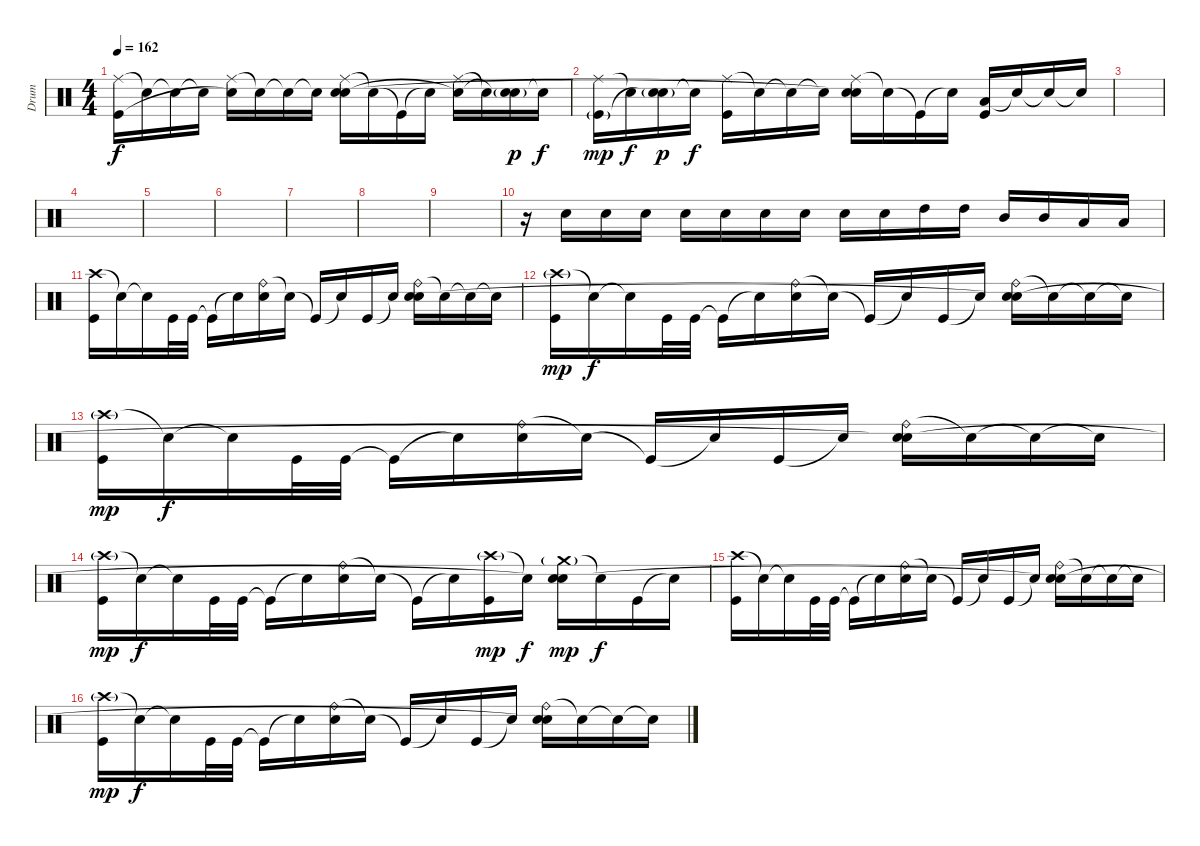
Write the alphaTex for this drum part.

\track ("Drum" "Drum") {instrument percussion}
\staff {score}
\articulation defaults
\ts (4 4)
\tempo 162
\clef neutral
\ks c
("Ride (middle)" "Kick (hit)").16{dy f} "Snare (hit)"{t}.16 "Snare (hit)"{t}.16 "Snare (hit)"{t}.16 ("Ride (middle)" "Snare (hit)"{t}).16 "Snare (hit)"{t}.16 "Snare (hit)"{t}.16 "Snare (hit)"{t}.16 ("Ride (middle)" "Electric Snare (hit)" "Snare (hit)"{t}).16 "Snare (hit)"{t}.16 "Kick (hit)"{t}.16 "Snare (hit)"{t}.16 ("Ride (middle)" "Snare (hit)"{t}).16 "Snare (hit)"{t}.16 ("Electric Snare (hit)"{g} "Snare (hit)"{t}).16{dy p} "Snare (hit)"{t}.16{dy f} |
("Ride (middle)" "Kick (hit)"{g}).16{dy mp} "Snare (hit)"{t}.16{dy f} ("Electric Snare (hit)"{g} "Snare (hit)"{t}).16{dy p} "Snare (hit)"{t}.16{dy f} ("Ride (middle)" "Kick (hit)").16 "Snare (hit)"{t}.16 "Snare (hit)"{t}.16 "Snare (hit)"{t}.16 ("Ride (middle)" "Electric Snare (hit)" "Snare (hit)"{t}).16 "Snare (hit)"{t}.16 "Kick (hit)"{t}.16 "Snare (hit)"{t}.16 ("Low Tom (hit)" "Kick (hit)").16 "Snare (hit)"{t}.16 "Snare (hit)"{t}.16 "Snare (hit)"{t}.16 |
|
|
|
|
|
|
|
r.16 "Electric Snare (hit)".16 "Electric Snare (hit)".16 "Electric Snare (hit)".16 "Electric Snare (hit)".16 "Electric Snare (hit)".16 "Electric Snare (hit)".16 "Electric Snare (hit)".16 "Electric Snare (hit)".16 "Electric Snare (hit)".16 "High Tom (hit)".16 "High Tom (hit)".16 "Mid Tom (hit)".16 "Mid Tom (hit)".16 "Low Tom (hit)".16 "Low Tom (hit)".16 |
("Crash high (hit)" "Kick (hit)").16 "Snare (hit)"{t}.16 "Snare (hit)"{t}.16 "Kick (hit)".32 "Kick (hit)".32 "Kick (hit)"{t}.16 "Snare (hit)"{t}.16 ("Ride (bell)" "Electric Snare (hit)").16 "Snare (hit)"{t}.16 "Kick (hit)"{t}.16 "Snare (hit)"{t}.16 "Kick (hit)".16 "Snare (hit)"{t}.16 ("Ride (bell)" "Electric Snare (hit)" "Snare (hit)").16 "Snare (hit)"{t}.16 "Snare (hit)"{t}.16 "Snare (hit)"{t}.16 |
("Crash high (hit)"{g} "Kick (hit)").16{dy mp} "Snare (hit)"{t}.16{dy f} "Snare (hit)"{t}.16 "Kick (hit)".32 "Kick (hit)".32 "Kick (hit)"{t}.16 "Snare (hit)"{t}.16 ("Ride (bell)" "Electric Snare (hit)").16 "Snare (hit)"{t}.16 "Kick (hit)"{t}.16 "Snare (hit)"{t}.16 "Kick (hit)".16 "Snare (hit)"{t}.16 ("Ride (bell)" "Electric Snare (hit)" "Snare (hit)"{t}).16 "Snare (hit)"{t}.16 "Snare (hit)"{t}.16 "Snare (hit)"{t}.16 |
("Crash high (hit)"{g} "Kick (hit)").16{dy mp} "Snare (hit)"{t}.16{dy f} "Snare (hit)"{t}.16 "Kick (hit)".32 "Kick (hit)".32 "Kick (hit)"{t}.16 "Snare (hit)"{t}.16 ("Ride (bell)" "Electric Snare (hit)").16 "Snare (hit)"{t}.16 "Kick (hit)"{t}.16 "Snare (hit)"{t}.16 "Kick (hit)".16 "Snare (hit)"{t}.16 ("Ride (bell)" "Electric Snare (hit)" "Snare (hit)"{t}).16 "Snare (hit)"{t}.16 "Snare (hit)"{t}.16 "Snare (hit)"{t}.16 |
("Crash high (hit)"{g} "Kick (hit)").16{dy mp} "Snare (hit)"{t}.16{dy f} "Snare (hit)"{t}.16 "Kick (hit)".32 "Kick (hit)".32 "Kick (hit)"{t}.16 "Snare (hit)"{t}.16 ("Ride (bell)" "Electric Snare (hit)").16 "Snare (hit)"{t}.16 "Kick (hit)"{t}.16 "Snare (hit)"{t}.16 ("Crash high (hit)"{g} "Kick (hit)").16{dy mp} "Snare (hit)"{t}.16{dy f} ("Crash medium (hit)"{g} "Electric Snare (hit)" "Snare (hit)"{t}).16{dy mp} "Snare (hit)"{t}.16{dy f} "Kick (hit)".16 "Snare (hit)"{t}.16 |
("Crash high (hit)" "Kick (hit)").16 "Snare (hit)"{t}.16 "Snare (hit)"{t}.16 "Kick (hit)".32 "Kick (hit)".32 "Kick (hit)"{t}.16 "Snare (hit)"{t}.16 ("Ride (bell)" "Electric Snare (hit)").16 "Snare (hit)"{t}.16 "Kick (hit)"{t}.16 "Snare (hit)"{t}.16 "Kick (hit)".16 "Snare (hit)"{t}.16 ("Ride (bell)" "Electric Snare (hit)" "Snare (hit)"{t}).16 "Snare (hit)"{t}.16 "Snare (hit)"{t}.16 "Snare (hit)"{t}.16 |
("Crash high (hit)"{g} "Kick (hit)").16{dy mp} "Snare (hit)"{t}.16{dy f} "Snare (hit)"{t}.16 "Kick (hit)".32 "Kick (hit)".32 "Kick (hit)"{t}.16 "Snare (hit)"{t}.16 ("Ride (bell)" "Electric Snare (hit)").16 "Snare (hit)"{t}.16 "Kick (hit)"{t}.16 "Snare (hit)"{t}.16 "Kick (hit)".16 "Snare (hit)"{t}.16 ("Ride (bell)" "Electric Snare (hit)" "Snare (hit)"{t}).16 "Snare (hit)"{t}.16 "Snare (hit)"{t}.16 "Snare (hit)"{t}.16
